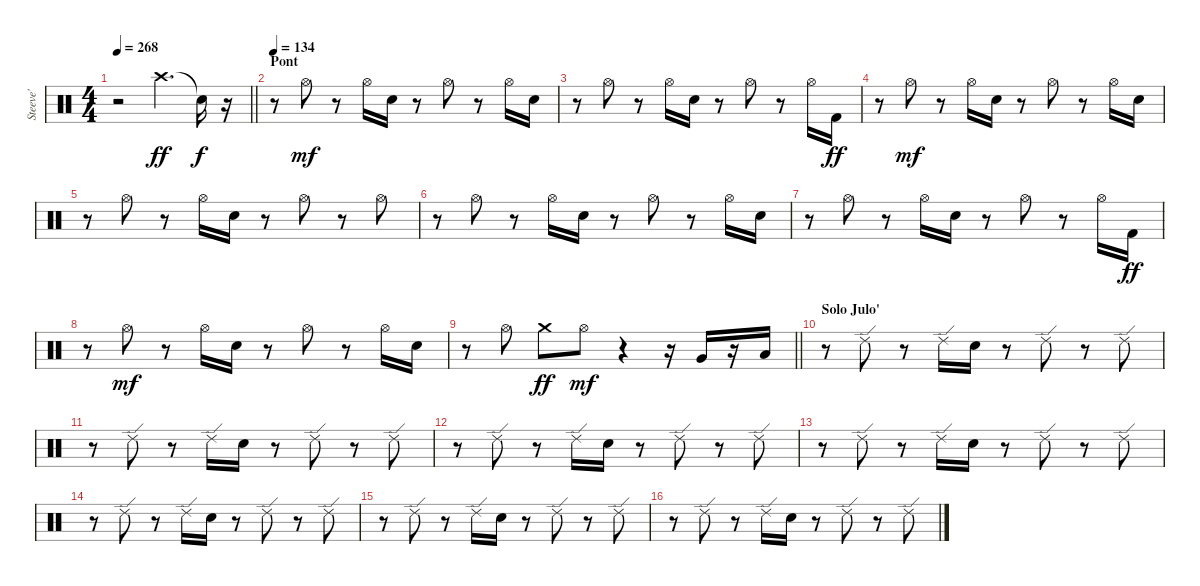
\track ("Steeve'" "Steeve'") {instrument percussion}
\staff {score}
\articulation defaults
\ts (4 4)
\tempo 268
\clef neutral
\barLineRight lightlight
\ks c
r.2{dy f} "Crash high (hit)".4{d dy ff} "Snare (hit)"{t}.16{dy f} r.16 |
\section ("" "Pont")
\tempo 134
r.8 "Hi-Hat (open)".8{dy mf} r.8 "Hi-Hat (open)".16 "Electric Snare (hit)".16 r.8 "Hi-Hat (open)".8 r.8 "Hi-Hat (open)".16 "Electric Snare (hit)".16 |
r.8 "Hi-Hat (open)".8 r.8 "Hi-Hat (open)".16 "Electric Snare (hit)".16 r.8 "Hi-Hat (open)".8 r.8 "Hi-Hat (open)".16 "Kick (hit) 2".16{dy ff} |
r.8 "Hi-Hat (open)".8{dy mf} r.8 "Hi-Hat (open)".16 "Electric Snare (hit)".16 r.8 "Hi-Hat (open)".8 r.8 "Hi-Hat (open)".16 "Electric Snare (hit)".16 |
r.8 "Hi-Hat (open)".8 r.8 "Hi-Hat (open)".16 "Electric Snare (hit)".16 r.8 "Hi-Hat (open)".8 r.8 "Hi-Hat (open)".8 |
r.8 "Hi-Hat (open)".8 r.8 "Hi-Hat (open)".16 "Electric Snare (hit)".16 r.8 "Hi-Hat (open)".8 r.8 "Hi-Hat (open)".16 "Electric Snare (hit)".16 |
r.8 "Hi-Hat (open)".8 r.8 "Hi-Hat (open)".16 "Electric Snare (hit)".16 r.8 "Hi-Hat (open)".8 r.8 "Hi-Hat (open)".16 "Kick (hit) 2".16{dy ff} |
r.8 "Hi-Hat (open)".8{dy mf} r.8 "Hi-Hat (open)".16 "Electric Snare (hit)".16 r.8 "Hi-Hat (open)".8 r.8 "Hi-Hat (open)".16 "Electric Snare (hit)".16 |
\barLineRight lightlight
r.8 "Hi-Hat (open)".8 "Crash medium (hit)".8{dy ff} "Hi-Hat (open)".8{dy mf} r.4 r.16 "Very Low Tom (hit)".16 r.16 "Low Floor Tom (hit)".16 |
\section ("" "Solo Julo'")
r.8 "Ride (edge) 2".8 r.8 "Ride (edge) 2".16 "Electric Snare (hit)".16 r.8 "Ride (edge) 2".8 r.8 "Ride (edge) 2".8 |
r.8 "Ride (edge) 2".8 r.8 "Ride (edge) 2".16 "Electric Snare (hit)".16 r.8 "Ride (edge) 2".8 r.8 "Ride (edge) 2".8 |
r.8 "Ride (edge) 2".8 r.8 "Ride (edge) 2".16 "Electric Snare (hit)".16 r.8 "Ride (edge) 2".8 r.8 "Ride (edge) 2".8 |
r.8 "Ride (edge) 2".8 r.8 "Ride (edge) 2".16 "Electric Snare (hit)".16 r.8 "Ride (edge) 2".8 r.8 "Ride (edge) 2".8 |
r.8 "Ride (edge) 2".8 r.8 "Ride (edge) 2".16 "Electric Snare (hit)".16 r.8 "Ride (edge) 2".8 r.8 "Ride (edge) 2".8 |
r.8 "Ride (edge) 2".8 r.8 "Ride (edge) 2".16 "Electric Snare (hit)".16 r.8 "Ride (edge) 2".8 r.8 "Ride (edge) 2".8 |
r.8 "Ride (edge) 2".8 r.8 "Ride (edge) 2".16 "Electric Snare (hit)".16 r.8 "Ride (edge) 2".8 r.8 "Ride (edge) 2".8
